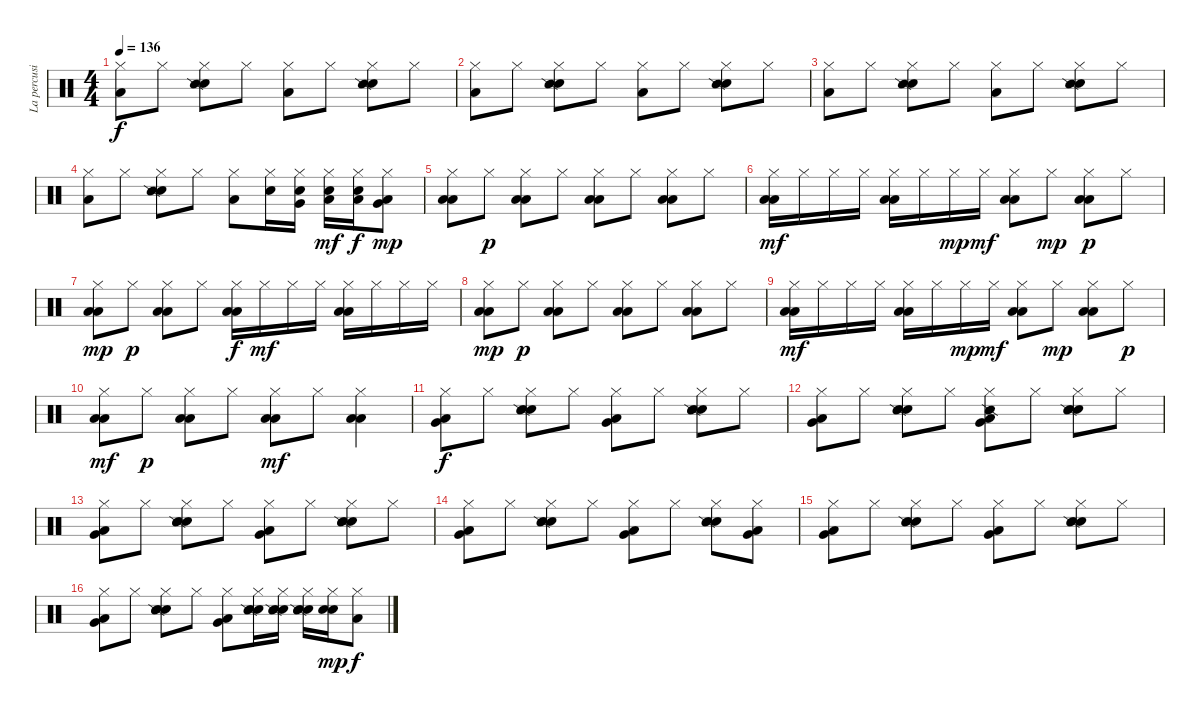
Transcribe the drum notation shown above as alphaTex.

\track ("La percusión" "La percusi") {instrument percussion}
\staff {score}
\articulation defaults
\ts (4 4)
\tempo 136
\clef neutral
\ks c
("Hi-Hat (closed)" "Low Floor Tom (hit)").8{dy f} "Hi-Hat (closed)".8 ("Hi-Hat (closed)" "Snare (hit) 2" "Snare (side stick) 2").8 "Hi-Hat (closed)".8 ("Hi-Hat (closed)" "Low Floor Tom (hit)").8 "Hi-Hat (closed)".8 ("Hi-Hat (closed)" "Snare (hit) 2" "Snare (side stick) 2").8 "Hi-Hat (closed)".8 |
("Hi-Hat (closed)" "Low Floor Tom (hit)").8 "Hi-Hat (closed)".8 ("Hi-Hat (closed)" "Snare (hit) 2" "Snare (side stick) 2").8 "Hi-Hat (closed)".8 ("Hi-Hat (closed)" "Low Floor Tom (hit)").8 "Hi-Hat (closed)".8 ("Hi-Hat (closed)" "Snare (hit) 2" "Snare (side stick) 2").8 "Hi-Hat (closed)".8 |
("Hi-Hat (closed)" "Low Floor Tom (hit)").8 "Hi-Hat (closed)".8 ("Hi-Hat (closed)" "Snare (hit) 2" "Snare (side stick) 2").8 "Hi-Hat (closed)".8 ("Hi-Hat (closed)" "Low Floor Tom (hit)").8 "Hi-Hat (closed)".8 ("Hi-Hat (closed)" "Snare (hit) 2" "Snare (side stick) 2").8 "Hi-Hat (closed)".8 |
("Hi-Hat (closed)" "Low Floor Tom (hit)").8 "Hi-Hat (closed)".8 ("Hi-Hat (closed)" "Snare (hit) 2" "Snare (side stick) 2").8 "Hi-Hat (closed)".8 ("Hi-Hat (closed)" "Low Floor Tom (hit)").8 ("Hi-Hat (closed)" "Snare (hit) 2").16 ("Hi-Hat (closed)" "Snare (hit) 2" "Very Low Tom (hit)").16 ("Hi-Hat (closed)" "Snare (hit) 2" "Low Floor Tom (hit)").16{dy mf} ("Hi-Hat (closed)" "Snare (hit) 2" "Low Floor Tom (hit)").16{dy f} ("Hi-Hat (closed)" "Very Low Tom (hit)" "Low Floor Tom (hit)").8{dy mp} |
("Hi-Hat (closed)" "Low Floor Tom (hit)" "Low Floor Tom (hit)").8 "Hi-Hat (closed)".8{dy p} ("Hi-Hat (closed)" "Low Floor Tom (hit)" "Low Floor Tom (hit)").8 "Hi-Hat (closed)".8 ("Hi-Hat (closed)" "Low Floor Tom (hit)" "Low Floor Tom (hit)").8 "Hi-Hat (closed)".8 ("Hi-Hat (closed)" "Low Floor Tom (hit)" "Low Floor Tom (hit)").8 "Hi-Hat (closed)".8 |
("Hi-Hat (closed)" "Low Floor Tom (hit)" "Low Floor Tom (hit)").16{dy mf} "Hi-Hat (closed)".16 "Hi-Hat (closed)".16 "Hi-Hat (closed)".16 ("Hi-Hat (closed)" "Low Floor Tom (hit)" "Low Floor Tom (hit)").16 "Hi-Hat (closed)".16 "Hi-Hat (closed)".16{dy mp} "Hi-Hat (closed)".16{dy mf} ("Hi-Hat (closed)" "Low Floor Tom (hit)" "Low Floor Tom (hit)").8 "Hi-Hat (closed)".8{dy mp} ("Hi-Hat (closed)" "Low Floor Tom (hit)" "Low Floor Tom (hit)").8{dy p} "Hi-Hat (closed)".8 |
("Hi-Hat (closed)" "Low Floor Tom (hit)" "Low Floor Tom (hit)").8{dy mp} "Hi-Hat (closed)".8{dy p} ("Hi-Hat (closed)" "Low Floor Tom (hit)" "Low Floor Tom (hit)").8 "Hi-Hat (closed)".8 ("Hi-Hat (closed)" "Low Floor Tom (hit)" "Low Floor Tom (hit)").16{dy f} "Hi-Hat (closed)".16{dy mf} "Hi-Hat (closed)".16 "Hi-Hat (closed)".16 ("Hi-Hat (closed)" "Low Floor Tom (hit)" "Low Floor Tom (hit)").16 "Hi-Hat (closed)".16 "Hi-Hat (closed)".16 "Hi-Hat (closed)".16 |
("Hi-Hat (closed)" "Low Floor Tom (hit)" "Low Floor Tom (hit)").8{dy mp} "Hi-Hat (closed)".8{dy p} ("Hi-Hat (closed)" "Low Floor Tom (hit)" "Low Floor Tom (hit)").8 "Hi-Hat (closed)".8 ("Hi-Hat (closed)" "Low Floor Tom (hit)" "Low Floor Tom (hit)").8 "Hi-Hat (closed)".8 ("Hi-Hat (closed)" "Low Floor Tom (hit)" "Low Floor Tom (hit)").8 "Hi-Hat (closed)".8 |
("Hi-Hat (closed)" "Low Floor Tom (hit)" "Low Floor Tom (hit)").16{dy mf} "Hi-Hat (closed)".16 "Hi-Hat (closed)".16 "Hi-Hat (closed)".16 ("Hi-Hat (closed)" "Low Floor Tom (hit)" "Low Floor Tom (hit)").16 "Hi-Hat (closed)".16 "Hi-Hat (closed)".16{dy mp} "Hi-Hat (closed)".16{dy mf} ("Hi-Hat (closed)" "Low Floor Tom (hit)" "Low Floor Tom (hit)").8 "Hi-Hat (closed)".8{dy mp} ("Hi-Hat (closed)" "Low Floor Tom (hit)" "Low Floor Tom (hit)").8 "Hi-Hat (closed)".8{dy p} |
("Hi-Hat (closed)" "Low Floor Tom (hit)" "Low Floor Tom (hit)").8{dy mf} "Hi-Hat (closed)".8{dy p} ("Hi-Hat (closed)" "Low Floor Tom (hit)" "Low Floor Tom (hit)").8 "Hi-Hat (closed)".8 ("Hi-Hat (closed)" "Low Floor Tom (hit)" "Low Floor Tom (hit)").8{dy mf} "Hi-Hat (closed)".8 ("Hi-Hat (closed)" "Low Floor Tom (hit)" "Low Floor Tom (hit)").4 |
("Hi-Hat (closed)" "Low Floor Tom (hit)" "Very Low Tom (hit)").8{dy f} "Hi-Hat (closed)".8 ("Hi-Hat (closed)" "Snare (hit) 2" "Snare (hit) 2" "Snare (side stick) 2").8 "Hi-Hat (closed)".8 ("Hi-Hat (closed)" "Low Floor Tom (hit)" "Very Low Tom (hit)").8 "Hi-Hat (closed)".8 ("Hi-Hat (closed)" "Snare (hit) 2" "Snare (hit) 2" "Snare (side stick) 2").8 "Hi-Hat (closed)".8 |
("Hi-Hat (closed)" "Low Floor Tom (hit)" "Very Low Tom (hit)").8 "Hi-Hat (closed)".8 ("Hi-Hat (closed)" "Snare (hit) 2" "Snare (hit) 2" "Snare (side stick) 2").8 "Hi-Hat (closed)".8 ("Hi-Hat (closed)" "Low Floor Tom (hit)" "Very Low Tom (hit)" "Snare (side stick) 2").8 "Hi-Hat (closed)".8 ("Hi-Hat (closed)" "Snare (hit) 2" "Snare (hit) 2" "Snare (side stick) 2").8 "Hi-Hat (closed)".8 |
("Hi-Hat (closed)" "Low Floor Tom (hit)" "Very Low Tom (hit)").8 "Hi-Hat (closed)".8 ("Hi-Hat (closed)" "Snare (hit) 2" "Snare (hit) 2" "Snare (side stick) 2").8 "Hi-Hat (closed)".8 ("Hi-Hat (closed)" "Low Floor Tom (hit)" "Very Low Tom (hit)").8 "Hi-Hat (closed)".8 ("Hi-Hat (closed)" "Snare (hit) 2" "Snare (hit) 2" "Snare (side stick) 2").8 "Hi-Hat (closed)".8 |
("Hi-Hat (closed)" "Low Floor Tom (hit)" "Very Low Tom (hit)").8 "Hi-Hat (closed)".8 ("Hi-Hat (closed)" "Snare (hit) 2" "Snare (hit) 2" "Snare (side stick) 2").8 "Hi-Hat (closed)".8 ("Hi-Hat (closed)" "Low Floor Tom (hit)" "Very Low Tom (hit)").8 "Hi-Hat (closed)".8 ("Hi-Hat (closed)" "Snare (hit) 2" "Snare (hit) 2" "Snare (side stick) 2").8 ("Hi-Hat (closed)" "Low Floor Tom (hit)" "Very Low Tom (hit)").8 |
("Hi-Hat (closed)" "Low Floor Tom (hit)" "Very Low Tom (hit)").8 "Hi-Hat (closed)".8 ("Hi-Hat (closed)" "Snare (hit) 2" "Snare (hit) 2" "Snare (side stick) 2").8 "Hi-Hat (closed)".8 ("Hi-Hat (closed)" "Low Floor Tom (hit)" "Very Low Tom (hit)").8 "Hi-Hat (closed)".8 ("Hi-Hat (closed)" "Snare (hit) 2" "Snare (hit) 2" "Snare (side stick) 2").8 "Hi-Hat (closed)".8 |
("Hi-Hat (closed)" "Low Floor Tom (hit)" "Very Low Tom (hit)").8 "Hi-Hat (closed)".8 ("Hi-Hat (closed)" "Snare (hit) 2" "Snare (hit) 2" "Snare (side stick) 2").8 "Hi-Hat (closed)".8 ("Hi-Hat (closed)" "Low Floor Tom (hit)" "Very Low Tom (hit)").8 ("Hi-Hat (closed)" "Snare (hit) 2" "Snare (hit) 2" "Snare (side stick) 2").16 ("Hi-Hat (closed)" "Snare (hit) 2" "Snare (hit) 2" "Snare (side stick) 2").16 ("Hi-Hat (closed)" "Snare (hit) 2" "Snare (hit) 2" "Snare (side stick) 2").16 ("Hi-Hat (closed)" "Snare (hit) 2" "Snare (hit) 2").16{dy mp} ("Hi-Hat (closed)" "Low Floor Tom (hit)").8{dy f}
